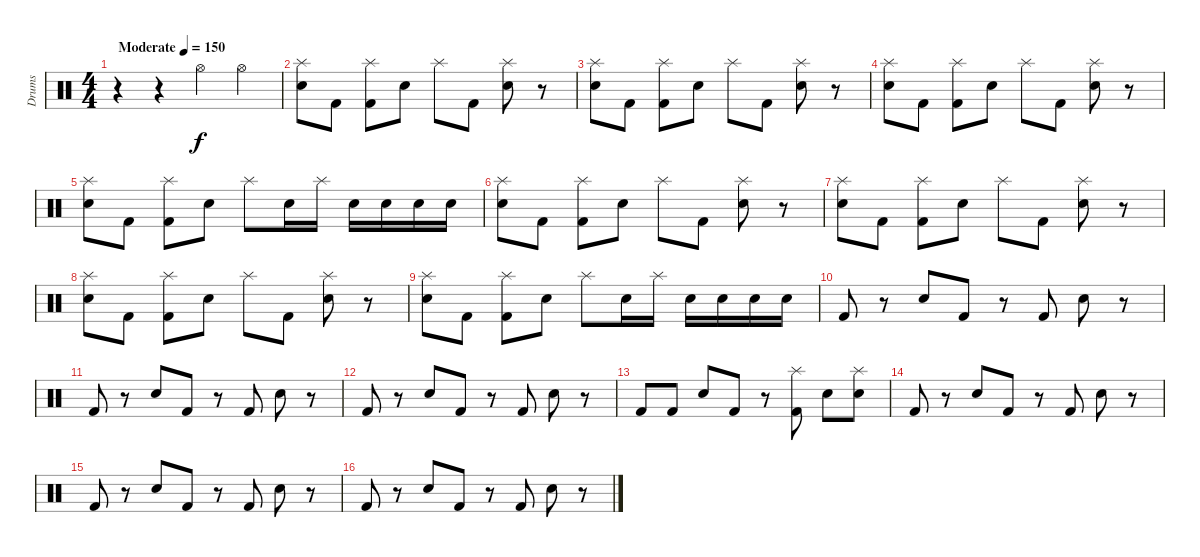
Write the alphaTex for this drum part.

\track ("Drums" "Drums") {instrument percussion}
\staff {score}
\articulation defaults
\ts (4 4)
\tempo (150 "Moderate")
\clef neutral
\ks c
r.4{dy f} r.4 "Hi-Hat (open)".4 "Hi-Hat (open)".4 |
("Splash (hit)" "Snare (hit) 2").8 "Kick (hit) 2".8 ("Splash (hit)" "Kick (hit) 2").8 "Snare (hit) 2".8 "Splash (hit)".8 "Kick (hit) 2".8 ("Splash (hit)" "Snare (hit) 2").8 r.8 |
("Splash (hit)" "Snare (hit) 2").8 "Kick (hit) 2".8 ("Splash (hit)" "Kick (hit) 2").8 "Snare (hit) 2".8 "Splash (hit)".8 "Kick (hit) 2".8 ("Splash (hit)" "Snare (hit) 2").8 r.8 |
("Splash (hit)" "Snare (hit) 2").8 "Kick (hit) 2".8 ("Splash (hit)" "Kick (hit) 2").8 "Snare (hit) 2".8 "Splash (hit)".8 "Kick (hit) 2".8 ("Splash (hit)" "Snare (hit) 2").8 r.8 |
("Splash (hit)" "Snare (hit) 2").8 "Kick (hit) 2".8 ("Splash (hit)" "Kick (hit) 2").8 "Snare (hit) 2".8 "Splash (hit)".8 "Snare (hit) 2".16 "Splash (hit)".16 "Snare (hit) 2".16 "Snare (hit) 2".16 "Snare (hit) 2".16 "Snare (hit) 2".16 |
("Splash (hit)" "Snare (hit) 2").8 "Kick (hit) 2".8 ("Splash (hit)" "Kick (hit) 2").8 "Snare (hit) 2".8 "Splash (hit)".8 "Kick (hit) 2".8 ("Splash (hit)" "Snare (hit) 2").8 r.8 |
("Splash (hit)" "Snare (hit) 2").8 "Kick (hit) 2".8 ("Splash (hit)" "Kick (hit) 2").8 "Snare (hit) 2".8 "Splash (hit)".8 "Kick (hit) 2".8 ("Splash (hit)" "Snare (hit) 2").8 r.8 |
("Splash (hit)" "Snare (hit) 2").8 "Kick (hit) 2".8 ("Splash (hit)" "Kick (hit) 2").8 "Snare (hit) 2".8 "Splash (hit)".8 "Kick (hit) 2".8 ("Splash (hit)" "Snare (hit) 2").8 r.8 |
("Splash (hit)" "Snare (hit) 2").8 "Kick (hit) 2".8 ("Splash (hit)" "Kick (hit) 2").8 "Snare (hit) 2".8 "Splash (hit)".8 "Snare (hit) 2".16 "Splash (hit)".16 "Snare (hit) 2".16 "Snare (hit) 2".16 "Snare (hit) 2".16 "Snare (hit) 2".16 |
"Kick (hit) 2".8 r.8 "Snare (hit) 2".8 "Kick (hit) 2".8 r.8 "Kick (hit) 2".8 "Snare (hit) 2".8 r.8 |
"Kick (hit) 2".8 r.8 "Snare (hit) 2".8 "Kick (hit) 2".8 r.8 "Kick (hit) 2".8 "Snare (hit) 2".8 r.8 |
"Kick (hit) 2".8 r.8 "Snare (hit) 2".8 "Kick (hit) 2".8 r.8 "Kick (hit) 2".8 "Snare (hit) 2".8 r.8 |
"Kick (hit) 2".8 "Kick (hit) 2".8 "Snare (hit) 2".8 "Kick (hit) 2".8 r.8 ("Splash (hit)" "Kick (hit) 2").8 "Snare (hit) 2".8 ("Splash (hit)" "Snare (hit) 2").8 |
"Kick (hit) 2".8 r.8 "Snare (hit) 2".8 "Kick (hit) 2".8 r.8 "Kick (hit) 2".8 "Snare (hit) 2".8 r.8 |
"Kick (hit) 2".8 r.8 "Snare (hit) 2".8 "Kick (hit) 2".8 r.8 "Kick (hit) 2".8 "Snare (hit) 2".8 r.8 |
"Kick (hit) 2".8 r.8 "Snare (hit) 2".8 "Kick (hit) 2".8 r.8 "Kick (hit) 2".8 "Snare (hit) 2".8 r.8
